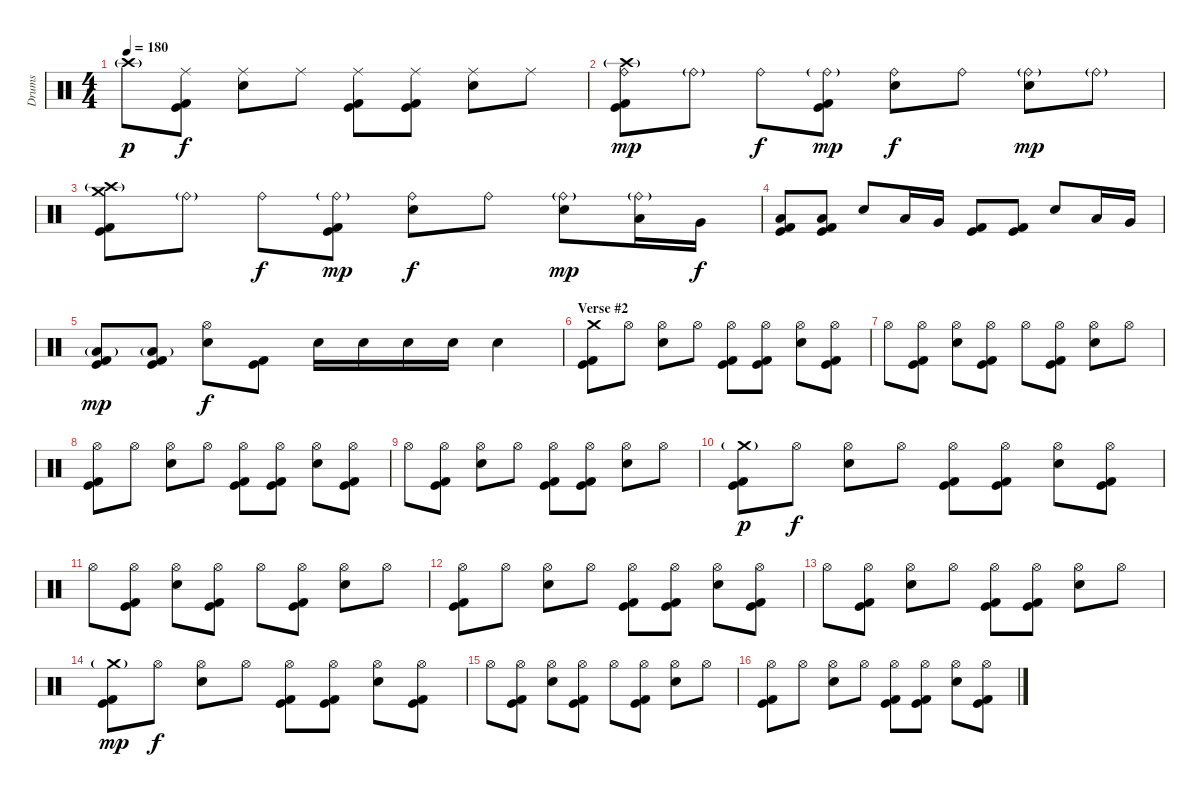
\track ("Drums" "Drums") {instrument percussion}
\staff {score}
\articulation defaults
\ts (4 4)
\tempo 180
\clef neutral
\ks c "Crash high (hit)"{g}.8{dy p}
("Ride (middle)" "Kick (hit) 2" "Kick (hit)").8{dy f} ("Ride (middle)" "Electric Snare (hit)").8 "Ride (middle)".8 ("Ride (middle)" "Kick (hit) 2" "Kick (hit)").8 ("Ride (middle)" "Kick (hit) 2" "Kick (hit)").8 ("Ride (middle)" "Electric Snare (hit)").8 "Ride (middle)".8 |
("Ride (bell)" "Crash high (hit)"{g} "Kick (hit) 2" "Kick (hit)").8{dy mp} "Ride (bell)"{g}.8 "Ride (bell)".8{dy f} ("Ride (bell)"{g} "Kick (hit) 2" "Kick (hit)").8{dy mp} ("Ride (bell)" "Electric Snare (hit)").8{dy f} "Ride (bell)".8 ("Ride (bell)"{g} "Electric Snare (hit)").8{dy mp} "Ride (bell)"{g}.8 |
("Crash medium (hit)" "Crash high (hit)"{g} "Kick (hit) 2" "Kick (hit)").8 "Ride (bell)"{g}.8 "Ride (bell)".8{dy f} ("Ride (bell)"{g} "Kick (hit) 2" "Kick (hit)").8{dy mp} ("Ride (bell)" "Electric Snare (hit)").8{dy f} "Ride (bell)".8 ("Ride (bell)"{g} "Electric Snare (hit)").8{dy mp} ("Ride (bell)"{g} "Low Tom (hit)").16 "Very Low Tom (hit)".16{dy f} |
("Low Floor Tom (hit)" "Kick (hit) 2" "Kick (hit)").8 ("Low Floor Tom (hit)" "Kick (hit) 2" "Kick (hit)").8 "Electric Snare (hit)".8 "Low Tom (hit)".16 "Very Low Tom (hit)".16 ("Kick (hit) 2" "Kick (hit)").8 ("Kick (hit) 2" "Kick (hit)").8 "Electric Snare (hit)".8 "Low Tom (hit)".16 "Very Low Tom (hit)".16 |
("Low Floor Tom (hit)"{g} "Kick (hit) 2" "Kick (hit)").8{dy mp} ("Low Floor Tom (hit)"{g} "Kick (hit) 2" "Kick (hit)").8 ("Hi-Hat (open)" "Electric Snare (hit)").8{dy f} ("Kick (hit) 2" "Kick (hit)").8 "Electric Snare (hit)".16 "Electric Snare (hit)".16 "Electric Snare (hit)".16 "Electric Snare (hit)".16 "Electric Snare (hit)".4 |
\section ("" "Verse #2")
("Crash medium (hit)" "Kick (hit) 2" "Kick (hit)").8 "Hi-Hat (open)".8 ("Hi-Hat (open)" "Electric Snare (hit)").8 "Hi-Hat (open)".8 ("Hi-Hat (open)" "Kick (hit) 2" "Kick (hit)").8 ("Hi-Hat (open)" "Kick (hit) 2" "Kick (hit)").8 ("Hi-Hat (open)" "Electric Snare (hit)").8 ("Hi-Hat (open)" "Kick (hit) 2" "Kick (hit)").8 |
"Hi-Hat (open)".8 ("Hi-Hat (open)" "Kick (hit) 2" "Kick (hit)").8 ("Hi-Hat (open)" "Electric Snare (hit)").8 ("Hi-Hat (open)" "Kick (hit) 2" "Kick (hit)").8 "Hi-Hat (open)".8 ("Hi-Hat (open)" "Kick (hit) 2" "Kick (hit)").8 ("Hi-Hat (open)" "Electric Snare (hit)").8 "Hi-Hat (open)".8 |
("Hi-Hat (open)" "Kick (hit) 2" "Kick (hit)").8 "Hi-Hat (open)".8 ("Hi-Hat (open)" "Electric Snare (hit)").8 "Hi-Hat (open)".8 ("Hi-Hat (open)" "Kick (hit) 2" "Kick (hit)").8 ("Hi-Hat (open)" "Kick (hit) 2" "Kick (hit)").8 ("Hi-Hat (open)" "Electric Snare (hit)").8 ("Hi-Hat (open)" "Kick (hit) 2" "Kick (hit)").8 |
"Hi-Hat (open)".8 ("Hi-Hat (open)" "Kick (hit) 2" "Kick (hit)").8 ("Hi-Hat (open)" "Electric Snare (hit)").8 "Hi-Hat (open)".8 ("Hi-Hat (open)" "Kick (hit) 2" "Kick (hit)").8 ("Hi-Hat (open)" "Kick (hit) 2" "Kick (hit)").8 ("Hi-Hat (open)" "Electric Snare (hit)").8 "Hi-Hat (open)".8 |
("Crash medium (hit)"{g} "Kick (hit) 2" "Kick (hit)").8{dy p} "Hi-Hat (open)".8{dy f} ("Hi-Hat (open)" "Electric Snare (hit)").8 "Hi-Hat (open)".8 ("Hi-Hat (open)" "Kick (hit) 2" "Kick (hit)").8 ("Hi-Hat (open)" "Kick (hit) 2" "Kick (hit)").8 ("Hi-Hat (open)" "Electric Snare (hit)").8 ("Hi-Hat (open)" "Kick (hit) 2" "Kick (hit)").8 |
"Hi-Hat (open)".8 ("Hi-Hat (open)" "Kick (hit) 2" "Kick (hit)").8 ("Hi-Hat (open)" "Electric Snare (hit)").8 ("Hi-Hat (open)" "Kick (hit) 2" "Kick (hit)").8 "Hi-Hat (open)".8 ("Hi-Hat (open)" "Kick (hit) 2" "Kick (hit)").8 ("Hi-Hat (open)" "Electric Snare (hit)").8 "Hi-Hat (open)".8 |
("Hi-Hat (open)" "Kick (hit) 2" "Kick (hit)").8 "Hi-Hat (open)".8 ("Hi-Hat (open)" "Electric Snare (hit)").8 "Hi-Hat (open)".8 ("Hi-Hat (open)" "Kick (hit) 2" "Kick (hit)").8 ("Hi-Hat (open)" "Kick (hit) 2" "Kick (hit)").8 ("Hi-Hat (open)" "Electric Snare (hit)").8 ("Hi-Hat (open)" "Kick (hit) 2" "Kick (hit)").8 |
"Hi-Hat (open)".8 ("Hi-Hat (open)" "Kick (hit) 2" "Kick (hit)").8 ("Hi-Hat (open)" "Electric Snare (hit)").8 "Hi-Hat (open)".8 ("Hi-Hat (open)" "Kick (hit) 2" "Kick (hit)").8 ("Hi-Hat (open)" "Kick (hit) 2" "Kick (hit)").8 ("Hi-Hat (open)" "Electric Snare (hit)").8 "Hi-Hat (open)".8 |
("Crash medium (hit)"{g} "Kick (hit) 2" "Kick (hit)").8{dy mp} "Hi-Hat (open)".8{dy f} ("Hi-Hat (open)" "Electric Snare (hit)").8 "Hi-Hat (open)".8 ("Hi-Hat (open)" "Kick (hit) 2" "Kick (hit)").8 ("Hi-Hat (open)" "Kick (hit) 2" "Kick (hit)").8 ("Hi-Hat (open)" "Electric Snare (hit)").8 ("Hi-Hat (open)" "Kick (hit) 2" "Kick (hit)").8 |
"Hi-Hat (open)".8 ("Hi-Hat (open)" "Kick (hit) 2" "Kick (hit)").8 ("Hi-Hat (open)" "Electric Snare (hit)").8 ("Hi-Hat (open)" "Kick (hit) 2" "Kick (hit)").8 "Hi-Hat (open)".8 ("Hi-Hat (open)" "Kick (hit) 2" "Kick (hit)").8 ("Hi-Hat (open)" "Electric Snare (hit)").8 "Hi-Hat (open)".8 |
("Hi-Hat (open)" "Kick (hit) 2" "Kick (hit)").8 "Hi-Hat (open)".8 ("Hi-Hat (open)" "Electric Snare (hit)").8 "Hi-Hat (open)".8 ("Hi-Hat (open)" "Kick (hit) 2" "Kick (hit)").8 ("Hi-Hat (open)" "Kick (hit) 2" "Kick (hit)").8 ("Hi-Hat (open)" "Electric Snare (hit)").8 ("Hi-Hat (open)" "Kick (hit) 2" "Kick (hit)").8
